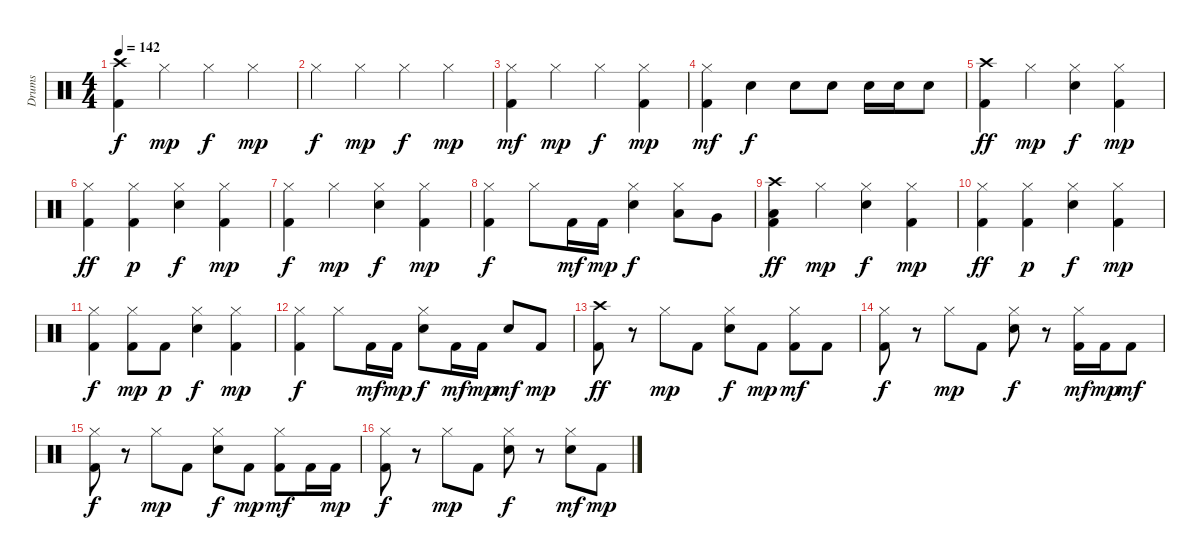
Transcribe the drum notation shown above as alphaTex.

\track ("Drums" "Drums") {instrument percussion}
\staff {score}
\articulation defaults
\ts (4 4)
\tempo 142
\clef neutral
\ks c
("Crash high (hit)" "Kick (hit) 2").4{dy f} "Hi-Hat (closed)".4{dy mp} "Hi-Hat (closed)".4{dy f} "Hi-Hat (closed)".4{dy mp} |
"Hi-Hat (closed)".4{dy f} "Hi-Hat (closed)".4{dy mp} "Hi-Hat (closed)".4{dy f} "Hi-Hat (closed)".4{dy mp} |
("Hi-Hat (closed)" "Kick (hit) 2").4{dy mf} "Hi-Hat (closed)".4{dy mp} "Hi-Hat (closed)".4{dy f} ("Hi-Hat (closed)" "Kick (hit) 2").4{dy mp} |
("Hi-Hat (closed)" "Kick (hit) 2").4{dy mf} "Snare (hit) 2".4{dy f} "Snare (hit) 2".8 "Snare (hit) 2".8 "Snare (hit) 2".16 "Snare (hit) 2".16 "Snare (hit) 2".8 |
("Crash high (hit)" "Kick (hit) 2").4{dy ff} "Hi-Hat (closed)".4{dy mp} ("Hi-Hat (closed)" "Snare (hit) 2").4{dy f} ("Hi-Hat (closed)" "Kick (hit) 2").4{dy mp} |
("Hi-Hat (closed)" "Kick (hit) 2").4{dy ff} ("Hi-Hat (closed)" "Kick (hit) 2").4{dy p} ("Hi-Hat (closed)" "Snare (hit) 2").4{dy f} ("Hi-Hat (closed)" "Kick (hit) 2").4{dy mp} |
("Hi-Hat (closed)" "Kick (hit) 2").4{dy f} "Hi-Hat (closed)".4{dy mp} ("Hi-Hat (closed)" "Snare (hit) 2").4{dy f} ("Hi-Hat (closed)" "Kick (hit) 2").4{dy mp} |
("Hi-Hat (closed)" "Kick (hit) 2").4{dy f} "Hi-Hat (closed)".8 "Kick (hit) 2".16{dy mf} "Kick (hit) 2".16{dy mp} ("Hi-Hat (closed)" "Snare (hit) 2").4{dy f} ("Hi-Hat (closed)" "Low Tom (hit)").8 "Very Low Tom (hit)".8 |
("Crash high (hit)" "Low Floor Tom (hit)" "Kick (hit) 2").4{dy ff} "Hi-Hat (closed)".4{dy mp} ("Hi-Hat (closed)" "Snare (hit) 2").4{dy f} ("Hi-Hat (closed)" "Kick (hit) 2").4{dy mp} |
("Hi-Hat (closed)" "Kick (hit) 2").4{dy ff} ("Hi-Hat (closed)" "Kick (hit) 2").4{dy p} ("Hi-Hat (closed)" "Snare (hit) 2").4{dy f} ("Hi-Hat (closed)" "Kick (hit) 2").4{dy mp} |
("Hi-Hat (closed)" "Kick (hit) 2").4{dy f} ("Hi-Hat (closed)" "Kick (hit) 2").8{dy mp} "Kick (hit) 2".8{dy p} ("Hi-Hat (closed)" "Snare (hit) 2").4{dy f} ("Hi-Hat (closed)" "Kick (hit) 2").4{dy mp} |
("Hi-Hat (closed)" "Kick (hit) 2").4{dy f} "Hi-Hat (closed)".8 "Kick (hit) 2".16{dy mf} "Kick (hit) 2".16{dy mp} ("Hi-Hat (closed)" "Snare (hit) 2").8{dy f} "Kick (hit) 2".16{dy mf} "Kick (hit) 2".16{dy mp} "Snare (hit) 2".8{dy mf} "Kick (hit) 2".8{dy mp} |
("Crash high (hit)" "Kick (hit) 2").8{dy ff} r.8 "Hi-Hat (closed)".8{dy mp} "Kick (hit) 2".8 ("Hi-Hat (closed)" "Snare (hit) 2").8{dy f} "Kick (hit) 2".8{dy mp} ("Hi-Hat (closed)" "Kick (hit) 2").8{dy mf} "Kick (hit) 2".8 |
("Hi-Hat (closed)" "Kick (hit) 2").8{dy f} r.8 "Hi-Hat (closed)".8{dy mp} "Kick (hit) 2".8 ("Hi-Hat (closed)" "Snare (hit) 2").8{dy f} r.8 ("Hi-Hat (closed)" "Kick (hit) 2").16{dy mf} "Kick (hit) 2".16{dy mp} "Kick (hit) 2".8{dy mf} |
("Hi-Hat (closed)" "Kick (hit) 2").8{dy f} r.8 "Hi-Hat (closed)".8{dy mp} "Kick (hit) 2".8 ("Hi-Hat (closed)" "Snare (hit) 2").8{dy f} "Kick (hit) 2".8{dy mp} ("Hi-Hat (closed)" "Kick (hit) 2").8{dy mf} "Kick (hit) 2".16 "Kick (hit) 2".16{dy mp} |
("Hi-Hat (closed)" "Kick (hit) 2").8{dy f} r.8 "Hi-Hat (closed)".8{dy mp} "Kick (hit) 2".8 ("Hi-Hat (closed)" "Snare (hit) 2").8{dy f} r.8 ("Hi-Hat (closed)" "Snare (hit) 2").8{dy mf} "Kick (hit) 2".8{dy mp}
